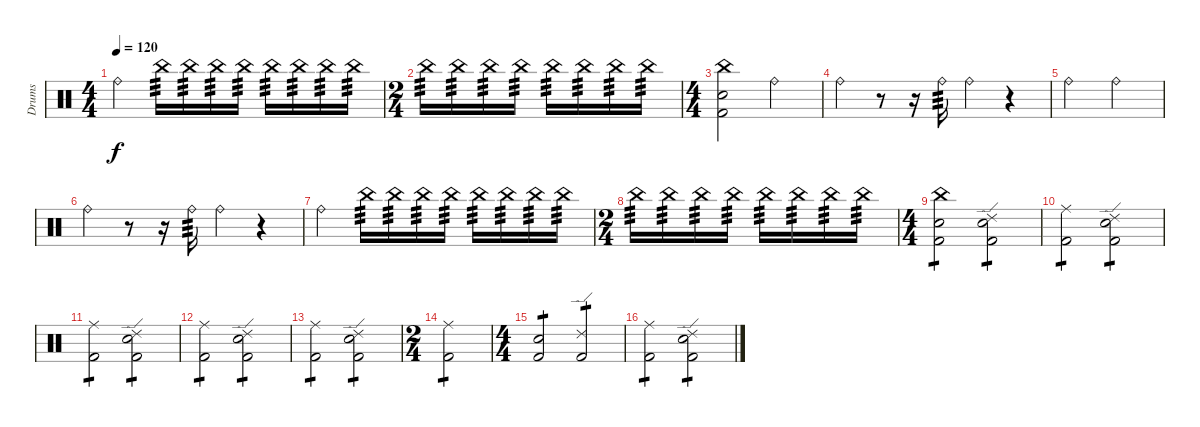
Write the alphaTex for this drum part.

\track ("Drums " "Drums ") {instrument percussion}
\staff {score}
\articulation defaults
\ts (4 4)
\tempo 120
\clef neutral
\ks c "Ride (bell)".2{dy f} "China (hit)".16{tp 3 volume 1} "China (hit)".16{tp 3 volume 2} "China (hit)".16{tp 3 volume 3} "China (hit)".16{tp 3 volume 4} "China (hit)".16{tp 3 volume 5} "China (hit)".16{tp 3 volume 6} "China (hit)".16{tp 3 volume 7} "China (hit)".16{tp 3 volume 8}
|
\ts (2 4)
"China (hit)".16{tp 3 volume 9} "China (hit)".16{tp 3 volume 10} "China (hit)".16{tp 3 volume 11} "China (hit)".16{tp 3 volume 12} "China (hit)".16{tp 3 volume 13} "China (hit)".16{tp 3 volume 14} "China (hit)".16{tp 3 volume 15} "China (hit)".16{tp 3 volume 16} |
\ts (4 4)
("Snare (hit) 2" "Kick (hit) 2" "China (hit)").2{volume 13} "Ride (bell)".2 |
"Ride (bell)".4 r.8 r.16 "Ride (bell)".16{tp 3} "Ride (bell)".4 r.4 |
"Ride (bell)".2 "Ride (bell)".2 |
"Ride (bell)".4 r.8 r.16 "Ride (bell)".16{tp 3} "Ride (bell)".4 r.4 |
"Ride (bell)".2 "China (hit)".16{tp 3 volume 1} "China (hit)".16{tp 3 volume 2} "China (hit)".16{tp 3 volume 3} "China (hit)".16{tp 3 volume 4} "China (hit)".16{tp 3 volume 5} "China (hit)".16{tp 3 volume 6} "China (hit)".16{tp 3 volume 7} "China (hit)".16{tp 3 volume 8} |
\ts (2 4)
"China (hit)".16{tp 3 volume 9} "China (hit)".16{tp 3 volume 10} "China (hit)".16{tp 3 volume 11} "China (hit)".16{tp 3 volume 12} "China (hit)".16{tp 3 volume 13} "China (hit)".16{tp 3 volume 14} "China (hit)".16{tp 3 volume 15} "China (hit)".16{tp 3 volume 16} |
\ts (4 4)
("Snare (hit) 2" "China (hit)" "Kick (hit) 2").2{tp 1} ("Ride (edge) 2" "Snare (hit) 2" "Kick (hit) 2").2{tp 1} |
("Ride (middle)" "Kick (hit) 2").2{tp 1} ("Ride (edge) 2" "Snare (hit) 2" "Kick (hit) 2").2{tp 1} |
("Ride (middle)" "Kick (hit) 2").2{tp 1} ("Ride (edge) 2" "Snare (hit) 2" "Kick (hit) 2").2{tp 1} |
("Ride (middle)" "Kick (hit) 2").2{tp 1} ("Ride (edge) 2" "Snare (hit) 2" "Kick (hit) 2").2{tp 1} |
("Ride (middle)" "Kick (hit) 2").2{tp 1} ("Ride (edge) 2" "Snare (hit) 2" "Kick (hit) 2").2{tp 1} |
\ts (2 4)
("Ride (middle)" "Kick (hit) 2").2{tp 1} |
\ts (4 4)
("Snare (hit) 2" "Kick (hit) 2").2{tp 1} ("Ride (edge) 2" "Kick (hit) 2").2{tp 1} |
("Ride (middle)" "Kick (hit) 2").2{tp 1} ("Ride (edge) 2" "Snare (hit) 2" "Kick (hit) 2").2{tp 1}
